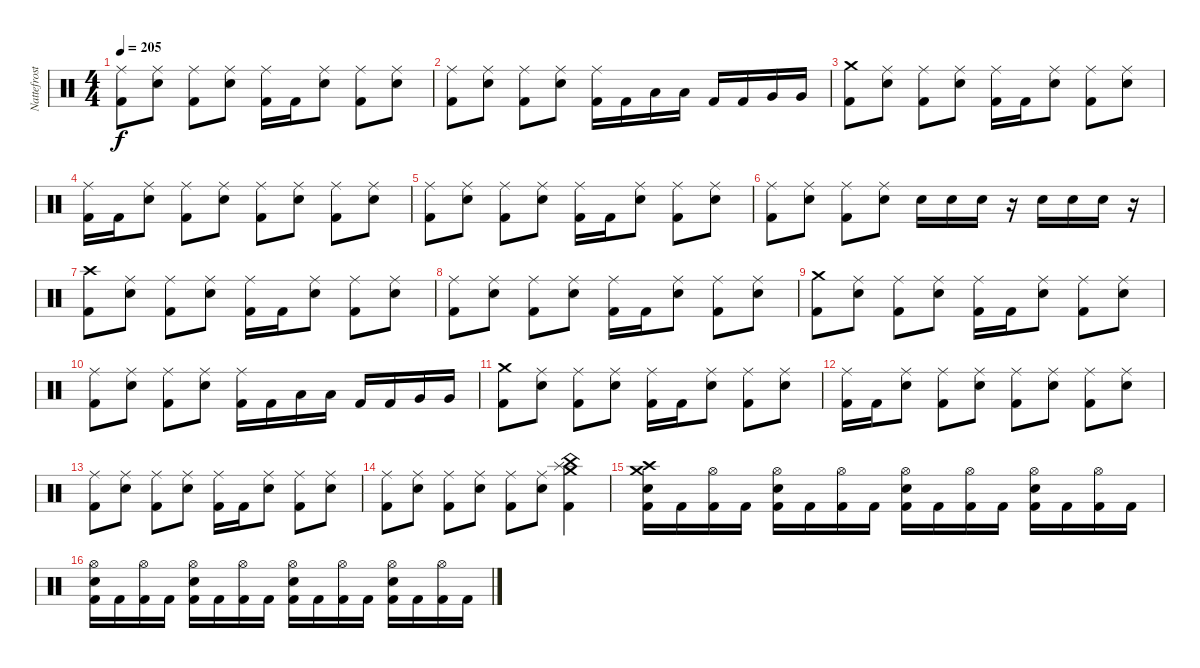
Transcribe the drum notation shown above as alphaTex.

\track ("Nattefrost" "Nattefrost") {instrument percussion}
\staff {score}
\articulation defaults
\ts (4 4)
\tempo 205
\clef neutral
\ks c
("Ride (middle)" "Kick (hit) 2").8{dy f} ("Ride (middle)" "Snare (hit) 2").8 ("Ride (middle)" "Kick (hit) 2").8 ("Ride (middle)" "Snare (hit) 2").8 ("Ride (middle)" "Kick (hit) 2").16 "Kick (hit) 2".16 ("Ride (middle)" "Snare (hit) 2").8 ("Ride (middle)" "Kick (hit) 2").8 ("Ride (middle)" "Snare (hit) 2").8 |
("Ride (middle)" "Kick (hit) 2").8 ("Ride (middle)" "Snare (hit) 2").8 ("Ride (middle)" "Kick (hit) 2").8 ("Ride (middle)" "Snare (hit) 2").8 ("Ride (middle)" "Kick (hit) 2").16 "Kick (hit) 2".16 "Low Tom (hit)".16 "Low Tom (hit)".16 "Kick (hit) 2".16 "Kick (hit) 2".16 "Very Low Tom (hit)".16 "Very Low Tom (hit)".16 |
("Crash medium (hit)" "Kick (hit) 2").8 ("Ride (middle)" "Snare (hit) 2").8 ("Ride (middle)" "Kick (hit) 2").8 ("Ride (middle)" "Snare (hit) 2").8 ("Ride (middle)" "Kick (hit) 2").16 "Kick (hit) 2".16 ("Ride (middle)" "Snare (hit) 2").8 ("Ride (middle)" "Kick (hit) 2").8 ("Ride (middle)" "Snare (hit) 2").8 |
("Ride (middle)" "Kick (hit) 2").16 "Kick (hit) 2".16 ("Ride (middle)" "Snare (hit) 2").8 ("Ride (middle)" "Kick (hit) 2").8 ("Ride (middle)" "Snare (hit) 2").8 ("Ride (middle)" "Kick (hit) 2").8 ("Ride (middle)" "Snare (hit) 2").8 ("Ride (middle)" "Kick (hit) 2").8 ("Ride (middle)" "Snare (hit) 2").8 |
("Ride (middle)" "Kick (hit) 2").8 ("Ride (middle)" "Snare (hit) 2").8 ("Ride (middle)" "Kick (hit) 2").8 ("Ride (middle)" "Snare (hit) 2").8 ("Ride (middle)" "Kick (hit) 2").16 "Kick (hit) 2".16 ("Ride (middle)" "Snare (hit) 2").8 ("Ride (middle)" "Kick (hit) 2").8 ("Ride (middle)" "Snare (hit) 2").8 |
("Ride (middle)" "Kick (hit) 2").8 ("Ride (middle)" "Snare (hit) 2").8 ("Ride (middle)" "Kick (hit) 2").8 ("Ride (middle)" "Snare (hit) 2").8 "Snare (hit) 2".16 "Snare (hit) 2".16 "Snare (hit) 2".16 r.16 "Snare (hit) 2".16 "Snare (hit) 2".16 "Snare (hit) 2".16 r.16 |
("Crash high (hit)" "Kick (hit) 2").8 ("Ride (middle)" "Snare (hit) 2").8 ("Ride (middle)" "Kick (hit) 2").8 ("Ride (middle)" "Snare (hit) 2").8 ("Ride (middle)" "Kick (hit) 2").16 "Kick (hit) 2".16 ("Ride (middle)" "Snare (hit) 2").8 ("Ride (middle)" "Kick (hit) 2").8 ("Ride (middle)" "Snare (hit) 2").8 |
("Ride (middle)" "Kick (hit) 2").8 ("Ride (middle)" "Snare (hit) 2").8 ("Ride (middle)" "Kick (hit) 2").8 ("Ride (middle)" "Snare (hit) 2").8 ("Ride (middle)" "Kick (hit) 2").16 "Kick (hit) 2".16 ("Ride (middle)" "Snare (hit) 2").8 ("Ride (middle)" "Kick (hit) 2").8 ("Ride (middle)" "Snare (hit) 2").8 |
("Crash medium (hit)" "Kick (hit) 2").8 ("Ride (middle)" "Snare (hit) 2").8 ("Ride (middle)" "Kick (hit) 2").8 ("Ride (middle)" "Snare (hit) 2").8 ("Ride (middle)" "Kick (hit) 2").16 "Kick (hit) 2".16 ("Ride (middle)" "Snare (hit) 2").8 ("Ride (middle)" "Kick (hit) 2").8 ("Ride (middle)" "Snare (hit) 2").8 |
("Ride (middle)" "Kick (hit) 2").8 ("Ride (middle)" "Snare (hit) 2").8 ("Ride (middle)" "Kick (hit) 2").8 ("Ride (middle)" "Snare (hit) 2").8 ("Ride (middle)" "Kick (hit) 2").16 "Kick (hit) 2".16 "Low Tom (hit)".16 "Low Tom (hit)".16 "Kick (hit) 2".16 "Kick (hit) 2".16 "Very Low Tom (hit)".16 "Very Low Tom (hit)".16 |
("Crash medium (hit)" "Kick (hit) 2").8 ("Ride (middle)" "Snare (hit) 2").8 ("Ride (middle)" "Kick (hit) 2").8 ("Ride (middle)" "Snare (hit) 2").8 ("Ride (middle)" "Kick (hit) 2").16 "Kick (hit) 2".16 ("Ride (middle)" "Snare (hit) 2").8 ("Ride (middle)" "Kick (hit) 2").8 ("Ride (middle)" "Snare (hit) 2").8 |
("Ride (middle)" "Kick (hit) 2").16 "Kick (hit) 2".16 ("Ride (middle)" "Snare (hit) 2").8 ("Ride (middle)" "Kick (hit) 2").8 ("Ride (middle)" "Snare (hit) 2").8 ("Ride (middle)" "Kick (hit) 2").8 ("Ride (middle)" "Snare (hit) 2").8 ("Ride (middle)" "Kick (hit) 2").8 ("Ride (middle)" "Snare (hit) 2").8 |
("Ride (middle)" "Kick (hit) 2").8 ("Ride (middle)" "Snare (hit) 2").8 ("Ride (middle)" "Kick (hit) 2").8 ("Ride (middle)" "Snare (hit) 2").8 ("Ride (middle)" "Kick (hit) 2").16 "Kick (hit) 2".16 ("Ride (middle)" "Snare (hit) 2").8 ("Ride (middle)" "Kick (hit) 2").8 ("Ride (middle)" "Snare (hit) 2").8 |
("Ride (middle)" "Kick (hit) 2").8 ("Ride (middle)" "Snare (hit) 2").8 ("Ride (middle)" "Kick (hit) 2").8 ("Ride (middle)" "Snare (hit) 2").8 ("Ride (middle)" "Kick (hit) 2").8 ("Ride (middle)" "Snare (hit) 2").8 ("Splash (hit)" "China (hit)" "Crash medium (hit)" "Kick (hit) 2").4 |
("Crash high (hit)" "Crash medium (hit)" "Snare (hit) 2" "Kick (hit) 2").16 "Kick (hit) 2".16 ("Hi-Hat (open)" "Kick (hit) 2").16 "Kick (hit) 2".16 ("Hi-Hat (open)" "Snare (hit) 2" "Kick (hit) 2").16 "Kick (hit) 2".16 ("Hi-Hat (open)" "Kick (hit) 2").16 "Kick (hit) 2".16 ("Hi-Hat (open)" "Snare (hit) 2" "Kick (hit) 2").16 "Kick (hit) 2".16 ("Hi-Hat (open)" "Kick (hit) 2").16 "Kick (hit) 2".16 ("Hi-Hat (open)" "Snare (hit) 2" "Kick (hit) 2").16 "Kick (hit) 2".16 ("Hi-Hat (open)" "Kick (hit) 2").16 "Kick (hit) 2".16 |
("Hi-Hat (open)" "Snare (hit) 2" "Kick (hit) 2").16 "Kick (hit) 2".16 ("Hi-Hat (open)" "Kick (hit) 2").16 "Kick (hit) 2".16 ("Hi-Hat (open)" "Snare (hit) 2" "Kick (hit) 2").16 "Kick (hit) 2".16 ("Hi-Hat (open)" "Kick (hit) 2").16 "Kick (hit) 2".16 ("Hi-Hat (open)" "Snare (hit) 2" "Kick (hit) 2").16 "Kick (hit) 2".16 ("Hi-Hat (open)" "Kick (hit) 2").16 "Kick (hit) 2".16 ("Hi-Hat (open)" "Snare (hit) 2" "Kick (hit) 2").16 "Kick (hit) 2".16 ("Hi-Hat (open)" "Kick (hit) 2").16 "Kick (hit) 2".16
